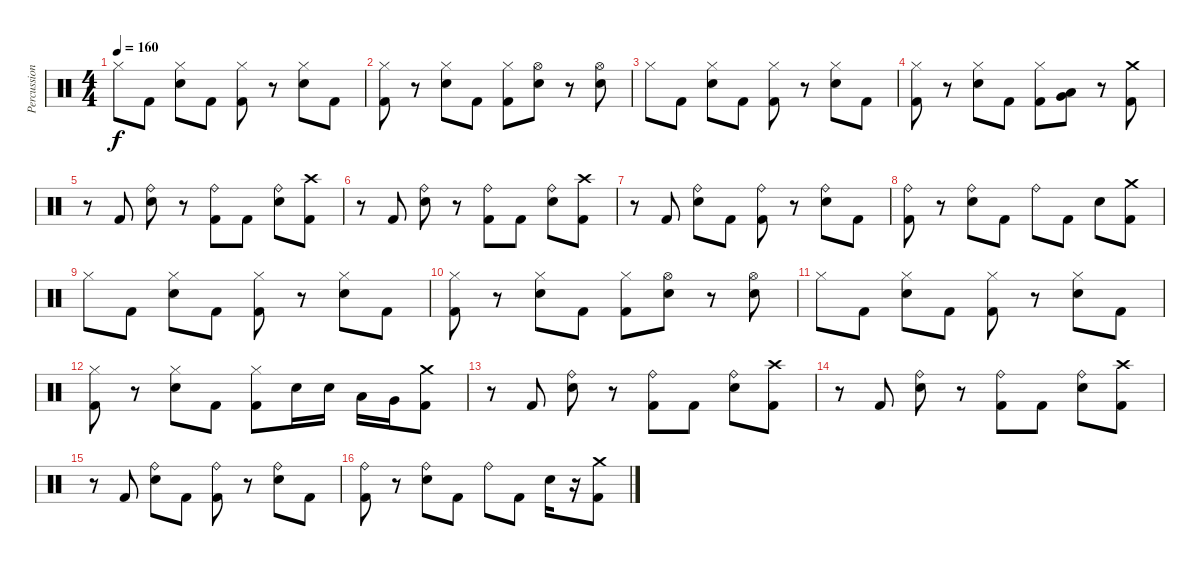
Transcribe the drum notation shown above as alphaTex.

\track ("Percussion" "Percussion") {instrument percussion}
\staff {score}
\articulation defaults
\ts (4 4)
\tempo 160
\clef neutral
\ks c "Hi-Hat (closed)".8{dy f} "Kick (hit) 2".8
("Hi-Hat (closed)" "Electric Snare (hit)").8 "Kick (hit) 2".8 ("Hi-Hat (closed)" "Kick (hit) 2").8 r.8 ("Hi-Hat (closed)" "Electric Snare (hit)").8 "Kick (hit) 2".8 |
("Hi-Hat (closed)" "Kick (hit) 2").8 r.8 ("Hi-Hat (closed)" "Electric Snare (hit)").8 "Kick (hit) 2".8 ("Hi-Hat (closed)" "Kick (hit) 2").8 ("Hi-Hat (open)" "Electric Snare (hit)").8 r.8 ("Hi-Hat (open)" "Electric Snare (hit)").8 |
"Hi-Hat (closed)".8 "Kick (hit) 2".8 ("Hi-Hat (closed)" "Electric Snare (hit)").8 "Kick (hit) 2".8 ("Hi-Hat (closed)" "Kick (hit) 2").8 r.8 ("Hi-Hat (closed)" "Electric Snare (hit)").8 "Kick (hit) 2".8 |
("Hi-Hat (closed)" "Kick (hit) 2").8 r.8 ("Hi-Hat (closed)" "Electric Snare (hit)").8 "Kick (hit) 2".8 ("Hi-Hat (closed)" "Kick (hit) 2").8 ("Very Low Tom (hit)" "Low Tom (hit)").8 r.8 ("Crash medium (hit)" "Kick (hit) 2").8 |
r.8 "Kick (hit) 2".8 ("Ride (bell)" "Electric Snare (hit)").8 r.8 ("Ride (bell)" "Kick (hit) 2").8 "Kick (hit) 2".8 ("Ride (bell)" "Electric Snare (hit)").8 ("Crash high (hit)" "Kick (hit) 2").8 |
r.8 "Kick (hit) 2".8 ("Ride (bell)" "Electric Snare (hit)").8 r.8 ("Ride (bell)" "Kick (hit) 2").8 "Kick (hit) 2".8 ("Ride (bell)" "Electric Snare (hit)").8 ("Crash high (hit)" "Kick (hit) 2").8 |
r.8 "Kick (hit) 2".8 ("Ride (bell)" "Electric Snare (hit)").8 "Kick (hit) 2".8 ("Ride (bell)" "Kick (hit) 2").8 r.8 ("Ride (bell)" "Electric Snare (hit)").8 "Kick (hit) 2".8 |
("Ride (bell)" "Kick (hit) 2").8 r.8 ("Ride (bell)" "Electric Snare (hit)").8 "Kick (hit) 2".8 "Ride (bell)".8 "Kick (hit) 2".8 "Electric Snare (hit)".8 ("Crash medium (hit)" "Kick (hit) 2").8 |
"Hi-Hat (closed)".8 "Kick (hit) 2".8 ("Hi-Hat (closed)" "Electric Snare (hit)").8 "Kick (hit) 2".8 ("Hi-Hat (closed)" "Kick (hit) 2").8 r.8 ("Hi-Hat (closed)" "Electric Snare (hit)").8 "Kick (hit) 2".8 |
("Hi-Hat (closed)" "Kick (hit) 2").8 r.8 ("Hi-Hat (closed)" "Electric Snare (hit)").8 "Kick (hit) 2".8 ("Hi-Hat (closed)" "Kick (hit) 2").8 ("Hi-Hat (open)" "Electric Snare (hit)").8 r.8 ("Hi-Hat (open)" "Electric Snare (hit)").8 |
"Hi-Hat (closed)".8 "Kick (hit) 2".8 ("Hi-Hat (closed)" "Electric Snare (hit)").8 "Kick (hit) 2".8 ("Hi-Hat (closed)" "Kick (hit) 2").8 r.8 ("Hi-Hat (closed)" "Electric Snare (hit)").8 "Kick (hit) 2".8 |
("Hi-Hat (closed)" "Kick (hit) 2").8 r.8 ("Hi-Hat (closed)" "Electric Snare (hit)").8 "Kick (hit) 2".8 ("Hi-Hat (closed)" "Kick (hit) 2").8 "Electric Snare (hit)".16 "Electric Snare (hit)".16 "Low Tom (hit)".16 "Very Low Tom (hit)".16 ("Crash medium (hit)" "Kick (hit) 2").8 |
r.8 "Kick (hit) 2".8 ("Ride (bell)" "Electric Snare (hit)").8 r.8 ("Ride (bell)" "Kick (hit) 2").8 "Kick (hit) 2".8 ("Ride (bell)" "Electric Snare (hit)").8 ("Crash high (hit)" "Kick (hit) 2").8 |
r.8 "Kick (hit) 2".8 ("Ride (bell)" "Electric Snare (hit)").8 r.8 ("Ride (bell)" "Kick (hit) 2").8 "Kick (hit) 2".8 ("Ride (bell)" "Electric Snare (hit)").8 ("Crash high (hit)" "Kick (hit) 2").8 |
r.8 "Kick (hit) 2".8 ("Ride (bell)" "Electric Snare (hit)").8 "Kick (hit) 2".8 ("Ride (bell)" "Kick (hit) 2").8 r.8 ("Ride (bell)" "Electric Snare (hit)").8 "Kick (hit) 2".8 |
("Ride (bell)" "Kick (hit) 2").8 r.8 ("Ride (bell)" "Electric Snare (hit)").8 "Kick (hit) 2".8 "Ride (bell)".8 "Kick (hit) 2".8 "Electric Snare (hit)".16 r.16 ("Crash medium (hit)" "Kick (hit) 2").8
